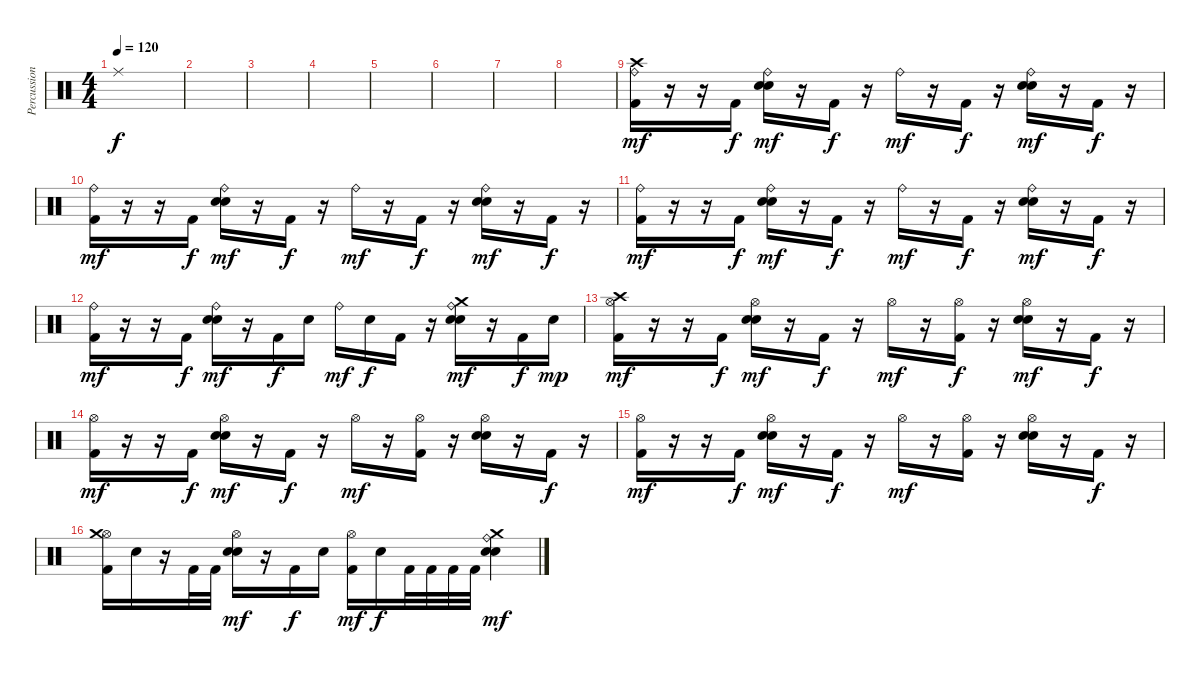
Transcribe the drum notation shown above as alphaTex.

\track ("Percussion" "Percussion") {instrument percussion}
\staff {score}
\articulation defaults
\ts (4 4)
\tempo 120
\clef neutral
\ks c "Ride (middle)".1{dy f}
|
|
|
|
|
|
|
|
("Ride (bell)" "Crash high (hit)" "Kick (hit) 2").16{dy mf} r.16 r.16 "Kick (hit) 2".16{dy f} ("Ride (bell)" "Snare (hit) 2" "Electric Snare (hit)").16{dy mf} r.16 "Kick (hit) 2".16{dy f} r.16 "Ride (bell)".16{dy mf} r.16 "Kick (hit) 2".16{dy f} r.16 ("Ride (bell)" "Snare (hit) 2" "Electric Snare (hit)").16{dy mf} r.16 "Kick (hit) 2".16{dy f} r.16 |
("Ride (bell)" "Kick (hit) 2").16{dy mf} r.16 r.16 "Kick (hit) 2".16{dy f} ("Ride (bell)" "Snare (hit) 2" "Electric Snare (hit)").16{dy mf} r.16 "Kick (hit) 2".16{dy f} r.16 "Ride (bell)".16{dy mf} r.16 "Kick (hit) 2".16{dy f} r.16 ("Ride (bell)" "Snare (hit) 2" "Electric Snare (hit)").16{dy mf} r.16 "Kick (hit) 2".16{dy f} r.16 |
("Ride (bell)" "Kick (hit) 2").16{dy mf} r.16 r.16 "Kick (hit) 2".16{dy f} ("Ride (bell)" "Snare (hit) 2" "Electric Snare (hit)").16{dy mf} r.16 "Kick (hit) 2".16{dy f} r.16 "Ride (bell)".16{dy mf} r.16 "Kick (hit) 2".16{dy f} r.16 ("Ride (bell)" "Snare (hit) 2" "Electric Snare (hit)").16{dy mf} r.16 "Kick (hit) 2".16{dy f} r.16 |
("Ride (bell)" "Kick (hit) 2").16{dy mf} r.16 r.16 "Kick (hit) 2".16{dy f} ("Ride (bell)" "Snare (hit) 2" "Electric Snare (hit)").16{dy mf} r.16 "Kick (hit) 2".16{dy f} "Electric Snare (hit)".16 "Ride (bell)".16{dy mf} "Electric Snare (hit)".16{dy f} "Kick (hit) 2".16 r.16 ("Ride (bell)" "Crash medium (hit)" "Snare (hit) 2" "Electric Snare (hit)").16{dy mf} r.16 "Kick (hit) 2".16{dy f} "Electric Snare (hit)".16{dy mp} |
("Hi-Hat (open)" "Crash high (hit)" "Kick (hit) 2").16{dy mf} r.16 r.16 "Kick (hit) 2".16{dy f} ("Hi-Hat (open)" "Snare (hit) 2" "Electric Snare (hit)").16{dy mf} r.16 "Kick (hit) 2".16{dy f} r.16 "Hi-Hat (open)".16{dy mf} r.16 ("Hi-Hat (open)" "Kick (hit) 2").16{dy f} r.16 ("Hi-Hat (open)" "Snare (hit) 2" "Electric Snare (hit)").16{dy mf} r.16 "Kick (hit) 2".16{dy f} r.16 |
("Hi-Hat (open)" "Kick (hit) 2").16{dy mf} r.16 r.16 "Kick (hit) 2".16{dy f} ("Hi-Hat (open)" "Snare (hit) 2" "Electric Snare (hit)").16{dy mf} r.16 "Kick (hit) 2".16{dy f} r.16 "Hi-Hat (open)".16{dy mf} r.16 ("Hi-Hat (open)" "Kick (hit) 2").16 r.16 ("Hi-Hat (open)" "Snare (hit) 2" "Electric Snare (hit)").16 r.16 "Kick (hit) 2".16{dy f} r.16 |
("Hi-Hat (open)" "Kick (hit) 2").16{dy mf} r.16 r.16 "Kick (hit) 2".16{dy f} ("Hi-Hat (open)" "Snare (hit) 2" "Electric Snare (hit)").16{dy mf} r.16 "Kick (hit) 2".16{dy f} r.16 "Hi-Hat (open)".16{dy mf} r.16 ("Hi-Hat (open)" "Kick (hit) 2").16 r.16 ("Hi-Hat (open)" "Snare (hit) 2" "Electric Snare (hit)").16 r.16 "Kick (hit) 2".16{dy f} r.16 |
("Hi-Hat (open)" "Crash medium (hit)" "Kick (hit) 2").16 "Electric Snare (hit)".16 r.16 "Kick (hit) 2".32 "Kick (hit) 2".32 ("Hi-Hat (open)" "Snare (hit) 2" "Electric Snare (hit)").16{dy mf} r.16 "Kick (hit) 2".16{dy f} "Electric Snare (hit)".16 ("Hi-Hat (open)" "Kick (hit) 2").16{dy mf} "Electric Snare (hit)".16{dy f} "Kick (hit) 2".32 "Kick (hit) 2".32 "Kick (hit) 2".32 "Kick (hit) 2".32 ("Ride (bell)" "Crash medium (hit)" "Snare (hit) 2" "Electric Snare (hit)").4{dy mf}
